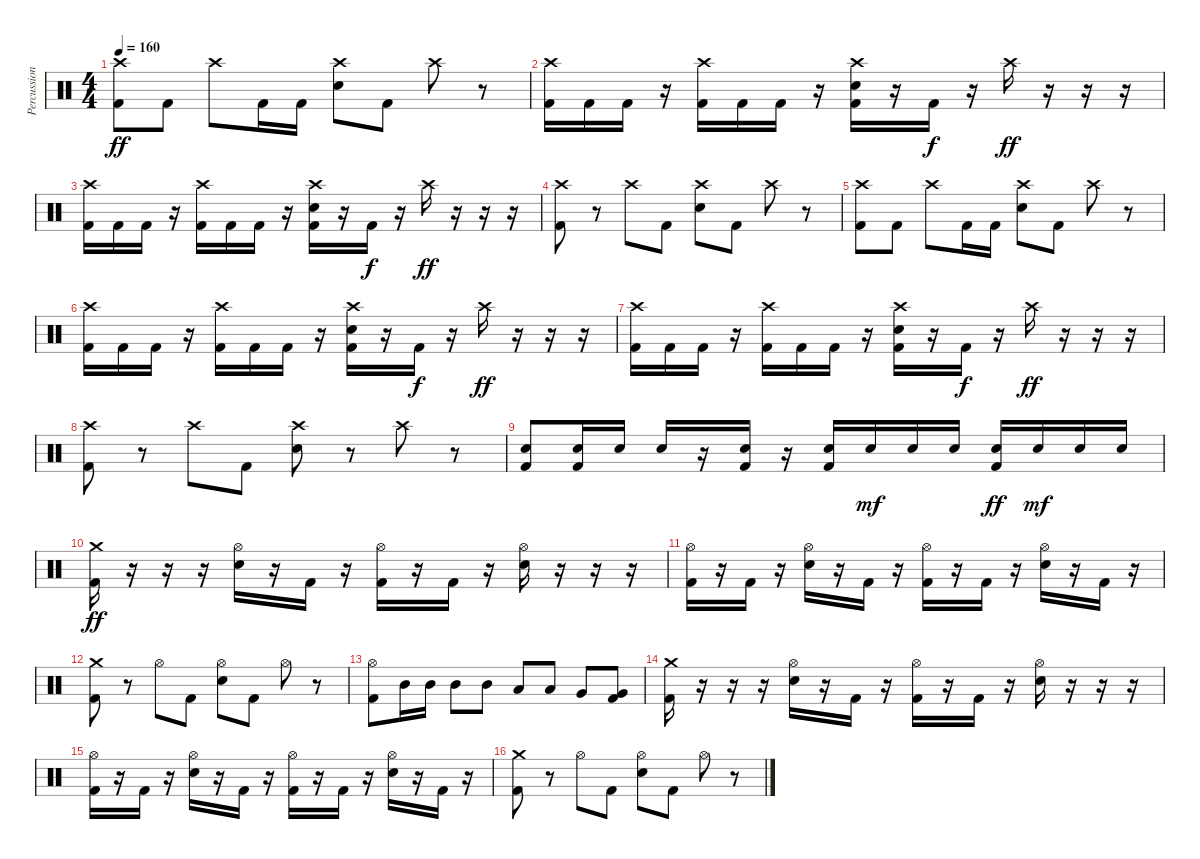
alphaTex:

\track ("Percussion" "Percussion") {instrument percussion}
\staff {score}
\articulation defaults
\ts (4 4)
\tempo 160
\clef neutral
\ks c
("Crash high (hit)" "Kick (hit) 2").8{dy ff} "Kick (hit) 2".8 "Crash high (hit)".8 "Kick (hit) 2".16 "Kick (hit) 2".16 ("Crash high (hit)" "Electric Snare (hit)").8 "Kick (hit) 2".8 "Crash high (hit)".8 r.8 |
("Crash high (hit)" "Kick (hit) 2").16 "Kick (hit) 2".16 "Kick (hit) 2".16 r.16 ("Crash high (hit)" "Kick (hit) 2").16 "Kick (hit) 2".16 "Kick (hit) 2".16 r.16 ("Crash high (hit)" "Electric Snare (hit)" "Kick (hit) 2").16 r.16 "Kick (hit) 2".16{dy f} r.16 "Crash high (hit)".16{dy ff} r.16 r.16 r.16 |
("Crash high (hit)" "Kick (hit) 2").16 "Kick (hit) 2".16 "Kick (hit) 2".16 r.16 ("Crash high (hit)" "Kick (hit) 2").16 "Kick (hit) 2".16 "Kick (hit) 2".16 r.16 ("Crash high (hit)" "Electric Snare (hit)" "Kick (hit) 2").16 r.16 "Kick (hit) 2".16{dy f} r.16 "Crash high (hit)".16{dy ff} r.16 r.16 r.16 |
("Crash high (hit)" "Kick (hit) 2").8 r.8 "Crash high (hit)".8 "Kick (hit) 2".8 ("Crash high (hit)" "Electric Snare (hit)").8 "Kick (hit) 2".8 "Crash high (hit)".8 r.8 |
("Crash high (hit)" "Kick (hit) 2").8 "Kick (hit) 2".8 "Crash high (hit)".8 "Kick (hit) 2".16 "Kick (hit) 2".16 ("Crash high (hit)" "Electric Snare (hit)").8 "Kick (hit) 2".8 "Crash high (hit)".8 r.8 |
("Crash high (hit)" "Kick (hit) 2").16 "Kick (hit) 2".16 "Kick (hit) 2".16 r.16 ("Crash high (hit)" "Kick (hit) 2").16 "Kick (hit) 2".16 "Kick (hit) 2".16 r.16 ("Crash high (hit)" "Electric Snare (hit)" "Kick (hit) 2").16 r.16 "Kick (hit) 2".16{dy f} r.16 "Crash high (hit)".16{dy ff} r.16 r.16 r.16 |
("Crash high (hit)" "Kick (hit) 2").16 "Kick (hit) 2".16 "Kick (hit) 2".16 r.16 ("Crash high (hit)" "Kick (hit) 2").16 "Kick (hit) 2".16 "Kick (hit) 2".16 r.16 ("Crash high (hit)" "Electric Snare (hit)" "Kick (hit) 2").16 r.16 "Kick (hit) 2".16{dy f} r.16 "Crash high (hit)".16{dy ff} r.16 r.16 r.16 |
("Crash high (hit)" "Kick (hit) 2").8 r.8 "Crash high (hit)".8 "Kick (hit) 2".8 ("Crash high (hit)" "Electric Snare (hit)").8 r.8 "Crash high (hit)".8 r.8 |
("Electric Snare (hit)" "Kick (hit) 2").8 ("Electric Snare (hit)" "Kick (hit) 2").16 "Electric Snare (hit)".16 "Electric Snare (hit)".16 r.16 ("Electric Snare (hit)" "Kick (hit) 2").16 r.16 ("Electric Snare (hit)" "Kick (hit) 2").16 "Electric Snare (hit)".16{dy mf} "Electric Snare (hit)".16 "Electric Snare (hit)".16 ("Electric Snare (hit)" "Kick (hit) 2").16{dy ff} "Electric Snare (hit)".16{dy mf} "Electric Snare (hit)".16 "Electric Snare (hit)".16 |
("Crash medium (hit)" "Kick (hit) 2").16{dy ff} r.16 r.16 r.16 ("Hi-Hat (open)" "Electric Snare (hit)").16 r.16 "Kick (hit) 2".16 r.16 ("Hi-Hat (open)" "Kick (hit) 2").16 r.16 "Kick (hit) 2".16 r.16 ("Hi-Hat (open)" "Electric Snare (hit)").16 r.16 r.16 r.16 |
("Hi-Hat (open)" "Kick (hit) 2").16 r.16 "Kick (hit) 2".16 r.16 ("Hi-Hat (open)" "Electric Snare (hit)").16 r.16 "Kick (hit) 2".16 r.16 ("Hi-Hat (open)" "Kick (hit) 2").16 r.16 "Kick (hit) 2".16 r.16 ("Hi-Hat (open)" "Electric Snare (hit)").16 r.16 "Kick (hit) 2".16 r.16 |
("Crash medium (hit)" "Kick (hit) 2").8 r.8 "Hi-Hat (open)".8 "Kick (hit) 2".8 ("Hi-Hat (open)" "Electric Snare (hit)").8 "Kick (hit) 2".8 "Hi-Hat (open)".8 r.8 |
("Hi-Hat (open)" "Kick (hit) 2").8 "Mid Tom (hit)".16 "Mid Tom (hit)".16 "Mid Tom (hit)".8 "Mid Tom (hit)".8 "Low Tom (hit)".8 "Low Tom (hit)".8 "Very Low Tom (hit)".8 ("Very Low Tom (hit)" "Kick (hit) 2").8 |
("Crash medium (hit)" "Kick (hit) 2").16 r.16 r.16 r.16 ("Hi-Hat (open)" "Electric Snare (hit)").16 r.16 "Kick (hit) 2".16 r.16 ("Hi-Hat (open)" "Kick (hit) 2").16 r.16 "Kick (hit) 2".16 r.16 ("Hi-Hat (open)" "Electric Snare (hit)").16 r.16 r.16 r.16 |
("Hi-Hat (open)" "Kick (hit) 2").16 r.16 "Kick (hit) 2".16 r.16 ("Hi-Hat (open)" "Electric Snare (hit)").16 r.16 "Kick (hit) 2".16 r.16 ("Hi-Hat (open)" "Kick (hit) 2").16 r.16 "Kick (hit) 2".16 r.16 ("Hi-Hat (open)" "Electric Snare (hit)").16 r.16 "Kick (hit) 2".16 r.16 |
("Crash medium (hit)" "Kick (hit) 2").8 r.8 "Hi-Hat (open)".8 "Kick (hit) 2".8 ("Hi-Hat (open)" "Electric Snare (hit)").8 "Kick (hit) 2".8 "Hi-Hat (open)".8 r.8
